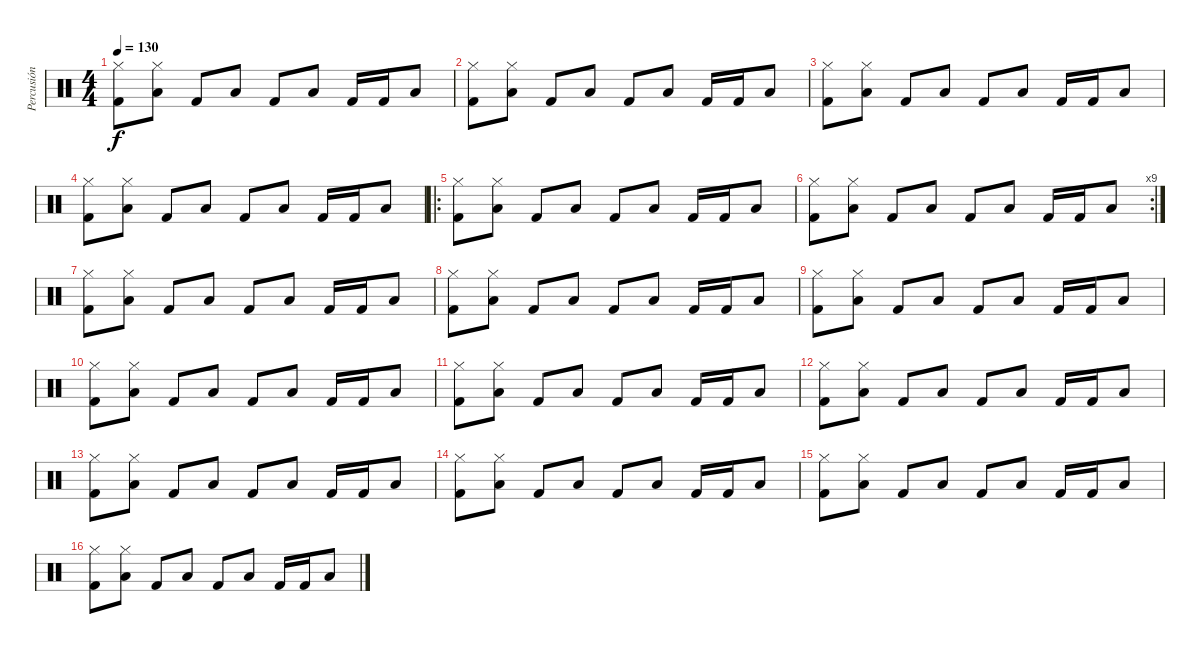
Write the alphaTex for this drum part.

\track ("Percusión" "Percusión") {instrument percussion}
\staff {score}
\articulation defaults
\ts (4 4)
\tempo 130
\clef neutral
\ks c
("Hi-Hat (closed)" "Kick (hit) 2").8{dy f} ("Hi-Hat (closed)" "Low Tom (hit)").8 "Kick (hit) 2".8 "Low Tom (hit)".8 "Kick (hit) 2".8 "Low Tom (hit)".8 "Kick (hit) 2".16 "Kick (hit) 2".16 "Low Tom (hit)".8 |
("Hi-Hat (closed)" "Kick (hit) 2").8 ("Hi-Hat (closed)" "Low Tom (hit)").8 "Kick (hit) 2".8 "Low Tom (hit)".8 "Kick (hit) 2".8 "Low Tom (hit)".8 "Kick (hit) 2".16 "Kick (hit) 2".16 "Low Tom (hit)".8 |
("Hi-Hat (closed)" "Kick (hit) 2").8 ("Hi-Hat (closed)" "Low Tom (hit)").8 "Kick (hit) 2".8 "Low Tom (hit)".8 "Kick (hit) 2".8 "Low Tom (hit)".8 "Kick (hit) 2".16 "Kick (hit) 2".16 "Low Tom (hit)".8 |
("Hi-Hat (closed)" "Kick (hit) 2").8 ("Hi-Hat (closed)" "Low Tom (hit)").8 "Kick (hit) 2".8 "Low Tom (hit)".8 "Kick (hit) 2".8 "Low Tom (hit)".8 "Kick (hit) 2".16 "Kick (hit) 2".16 "Low Tom (hit)".8 |
\ro
("Hi-Hat (closed)" "Kick (hit) 2").8 ("Hi-Hat (closed)" "Low Tom (hit)").8 "Kick (hit) 2".8 "Low Tom (hit)".8 "Kick (hit) 2".8 "Low Tom (hit)".8 "Kick (hit) 2".16 "Kick (hit) 2".16 "Low Tom (hit)".8 |
\rc 9
("Hi-Hat (closed)" "Kick (hit) 2").8 ("Hi-Hat (closed)" "Low Tom (hit)").8 "Kick (hit) 2".8 "Low Tom (hit)".8 "Kick (hit) 2".8 "Low Tom (hit)".8 "Kick (hit) 2".16 "Kick (hit) 2".16 "Low Tom (hit)".8 |
("Hi-Hat (closed)" "Kick (hit) 2").8 ("Hi-Hat (closed)" "Low Tom (hit)").8 "Kick (hit) 2".8 "Low Tom (hit)".8 "Kick (hit) 2".8 "Low Tom (hit)".8 "Kick (hit) 2".16 "Kick (hit) 2".16 "Low Tom (hit)".8 |
("Hi-Hat (closed)" "Kick (hit) 2").8 ("Hi-Hat (closed)" "Low Tom (hit)").8 "Kick (hit) 2".8 "Low Tom (hit)".8 "Kick (hit) 2".8 "Low Tom (hit)".8 "Kick (hit) 2".16 "Kick (hit) 2".16 "Low Tom (hit)".8 |
("Hi-Hat (closed)" "Kick (hit) 2").8 ("Hi-Hat (closed)" "Low Tom (hit)").8 "Kick (hit) 2".8 "Low Tom (hit)".8 "Kick (hit) 2".8 "Low Tom (hit)".8 "Kick (hit) 2".16 "Kick (hit) 2".16 "Low Tom (hit)".8 |
("Hi-Hat (closed)" "Kick (hit) 2").8 ("Hi-Hat (closed)" "Low Tom (hit)").8 "Kick (hit) 2".8 "Low Tom (hit)".8 "Kick (hit) 2".8 "Low Tom (hit)".8 "Kick (hit) 2".16 "Kick (hit) 2".16 "Low Tom (hit)".8 |
("Hi-Hat (closed)" "Kick (hit) 2").8 ("Hi-Hat (closed)" "Low Tom (hit)").8 "Kick (hit) 2".8 "Low Tom (hit)".8 "Kick (hit) 2".8 "Low Tom (hit)".8 "Kick (hit) 2".16 "Kick (hit) 2".16 "Low Tom (hit)".8 |
("Hi-Hat (closed)" "Kick (hit) 2").8 ("Hi-Hat (closed)" "Low Tom (hit)").8 "Kick (hit) 2".8 "Low Tom (hit)".8 "Kick (hit) 2".8 "Low Tom (hit)".8 "Kick (hit) 2".16 "Kick (hit) 2".16 "Low Tom (hit)".8 |
("Hi-Hat (closed)" "Kick (hit) 2").8 ("Hi-Hat (closed)" "Low Tom (hit)").8 "Kick (hit) 2".8 "Low Tom (hit)".8 "Kick (hit) 2".8 "Low Tom (hit)".8 "Kick (hit) 2".16 "Kick (hit) 2".16 "Low Tom (hit)".8 |
("Hi-Hat (closed)" "Kick (hit) 2").8 ("Hi-Hat (closed)" "Low Tom (hit)").8 "Kick (hit) 2".8 "Low Tom (hit)".8 "Kick (hit) 2".8 "Low Tom (hit)".8 "Kick (hit) 2".16 "Kick (hit) 2".16 "Low Tom (hit)".8 |
("Hi-Hat (closed)" "Kick (hit) 2").8 ("Hi-Hat (closed)" "Low Tom (hit)").8 "Kick (hit) 2".8 "Low Tom (hit)".8 "Kick (hit) 2".8 "Low Tom (hit)".8 "Kick (hit) 2".16 "Kick (hit) 2".16 "Low Tom (hit)".8 |
("Hi-Hat (closed)" "Kick (hit) 2").8 ("Hi-Hat (closed)" "Low Tom (hit)").8 "Kick (hit) 2".8 "Low Tom (hit)".8 "Kick (hit) 2".8 "Low Tom (hit)".8 "Kick (hit) 2".16 "Kick (hit) 2".16 "Low Tom (hit)".8
